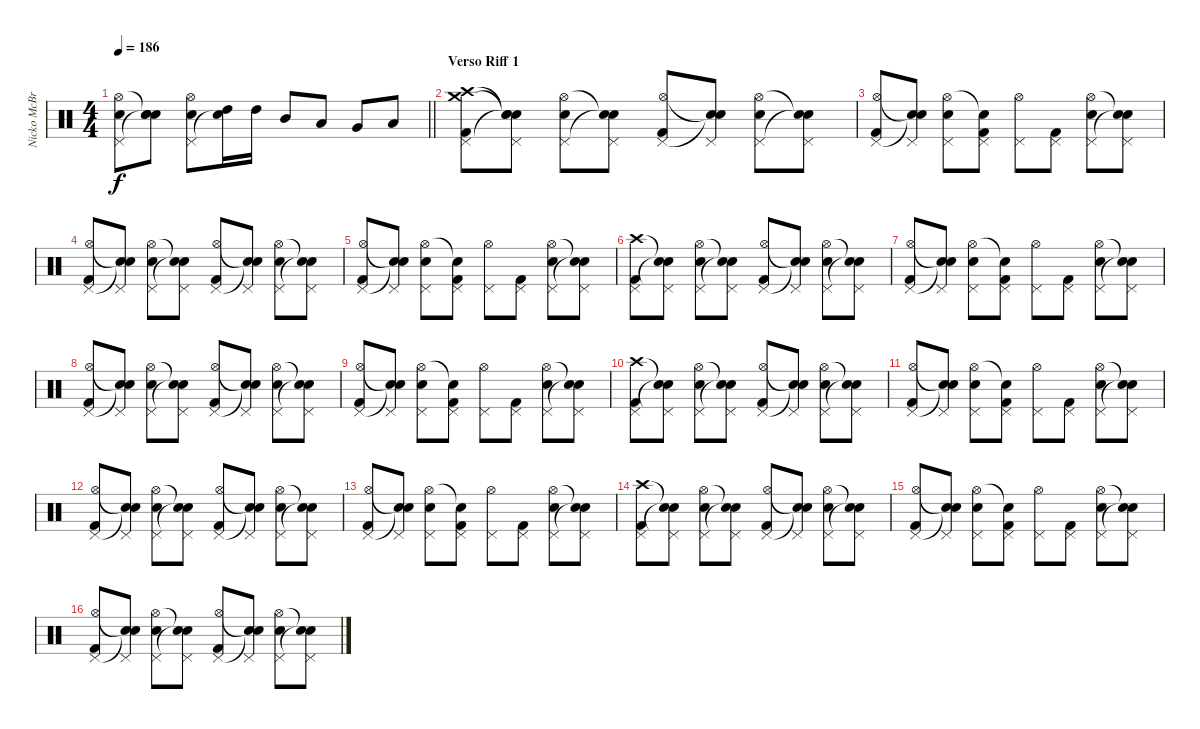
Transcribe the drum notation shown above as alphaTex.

\track ("Nicko McBrain" "Nicko McBr") {instrument percussion}
\staff {score}
\articulation defaults
\ts (4 4)
\tempo 186
\clef neutral
\barLineRight lightlight
\ks c
("Snare (hit) 2" "Pedal Hi-Hat (hit)" "Hi-Hat (open)").8{dy f} ("Snare (hit) 2" "Snare (hit)"{t} "Snare (hit)"{t}).8 ("Snare (hit) 2" "Pedal Hi-Hat (hit)" "Hi-Hat (open)").8 ("High Tom (hit)" "Snare (hit)"{t}).16 "High Tom (hit)".16 "Mid Tom (hit)".8 "Low Tom (hit)".8 "Very Low Tom (hit)".8 "Low Floor Tom (hit)".8 |
\section ("" "Verso Riff 1")
("Kick (hit) 2" "Pedal Hi-Hat (hit)" "Crash high (hit)" "Crash medium (hit)").8 ("Pedal Hi-Hat (hit)" "Snare (hit)"{t} "Snare (hit)"{t} "Snare (hit)"{t}).8 ("Snare (hit) 2" "Pedal Hi-Hat (hit)" "Hi-Hat (open)").8 ("Pedal Hi-Hat (hit)" "Snare (hit)"{t} "Snare (hit)"{t}).8 ("Kick (hit) 2" "Pedal Hi-Hat (hit)" "Hi-Hat (open)").8 ("Pedal Hi-Hat (hit)" "Snare (hit)"{t} "Snare (hit)"{t}).8 ("Snare (hit) 2" "Pedal Hi-Hat (hit)" "Hi-Hat (open)").8 ("Pedal Hi-Hat (hit)" "Snare (hit)"{t} "Snare (hit)"{t}).8 |
("Kick (hit) 2" "Pedal Hi-Hat (hit)" "Hi-Hat (open)").8 ("Pedal Hi-Hat (hit)" "Snare (hit)"{t} "Snare (hit)"{t}).8 ("Snare (hit) 2" "Pedal Hi-Hat (hit)" "Hi-Hat (open)").8 ("Kick (hit) 2" "Pedal Hi-Hat (hit)" "Snare (hit)"{t}).8 ("Pedal Hi-Hat (hit)" "Hi-Hat (open)").8 ("Kick (hit) 2" "Pedal Hi-Hat (hit)").8 ("Snare (hit) 2" "Pedal Hi-Hat (hit)" "Hi-Hat (open)").8 ("Pedal Hi-Hat (hit)" "Snare (hit)"{t} "Snare (hit)"{t}).8 |
("Kick (hit) 2" "Pedal Hi-Hat (hit)" "Hi-Hat (open)").8 ("Pedal Hi-Hat (hit)" "Snare (hit)"{t} "Snare (hit)"{t}).8 ("Snare (hit) 2" "Pedal Hi-Hat (hit)" "Hi-Hat (open)").8 ("Pedal Hi-Hat (hit)" "Snare (hit)"{t} "Snare (hit)"{t}).8 ("Kick (hit) 2" "Pedal Hi-Hat (hit)" "Hi-Hat (open)").8 ("Pedal Hi-Hat (hit)" "Snare (hit)"{t} "Snare (hit)"{t}).8 ("Snare (hit) 2" "Pedal Hi-Hat (hit)" "Hi-Hat (open)").8 ("Pedal Hi-Hat (hit)" "Snare (hit)"{t} "Snare (hit)"{t}).8 |
("Kick (hit) 2" "Pedal Hi-Hat (hit)" "Hi-Hat (open)").8 ("Pedal Hi-Hat (hit)" "Snare (hit)"{t} "Snare (hit)"{t}).8 ("Snare (hit) 2" "Pedal Hi-Hat (hit)" "Hi-Hat (open)").8 ("Kick (hit) 2" "Pedal Hi-Hat (hit)" "Snare (hit)"{t}).8 ("Pedal Hi-Hat (hit)" "Hi-Hat (open)").8 ("Kick (hit) 2" "Pedal Hi-Hat (hit)").8 ("Snare (hit) 2" "Pedal Hi-Hat (hit)" "Hi-Hat (open)").8 ("Pedal Hi-Hat (hit)" "Snare (hit)"{t} "Snare (hit)"{t}).8 |
("Kick (hit) 2" "Pedal Hi-Hat (hit)" "Crash high (hit)").8 ("Pedal Hi-Hat (hit)" "Snare (hit)"{t} "Snare (hit)"{t}).8 ("Snare (hit) 2" "Pedal Hi-Hat (hit)" "Hi-Hat (open)").8 ("Pedal Hi-Hat (hit)" "Snare (hit)"{t} "Snare (hit)"{t}).8 ("Kick (hit) 2" "Pedal Hi-Hat (hit)" "Hi-Hat (open)").8 ("Pedal Hi-Hat (hit)" "Snare (hit)"{t} "Snare (hit)"{t}).8 ("Snare (hit) 2" "Pedal Hi-Hat (hit)" "Hi-Hat (open)").8 ("Pedal Hi-Hat (hit)" "Snare (hit)"{t} "Snare (hit)"{t}).8 |
("Kick (hit) 2" "Pedal Hi-Hat (hit)" "Hi-Hat (open)").8 ("Pedal Hi-Hat (hit)" "Snare (hit)"{t} "Snare (hit)"{t}).8 ("Snare (hit) 2" "Pedal Hi-Hat (hit)" "Hi-Hat (open)").8 ("Kick (hit) 2" "Pedal Hi-Hat (hit)" "Snare (hit)"{t}).8 ("Pedal Hi-Hat (hit)" "Hi-Hat (open)").8 ("Kick (hit) 2" "Pedal Hi-Hat (hit)").8 ("Snare (hit) 2" "Pedal Hi-Hat (hit)" "Hi-Hat (open)").8 ("Pedal Hi-Hat (hit)" "Snare (hit)"{t} "Snare (hit)"{t}).8 |
("Kick (hit) 2" "Pedal Hi-Hat (hit)" "Hi-Hat (open)").8 ("Pedal Hi-Hat (hit)" "Snare (hit)"{t} "Snare (hit)"{t}).8 ("Snare (hit) 2" "Pedal Hi-Hat (hit)" "Hi-Hat (open)").8 ("Pedal Hi-Hat (hit)" "Snare (hit)"{t} "Snare (hit)"{t}).8 ("Kick (hit) 2" "Pedal Hi-Hat (hit)" "Hi-Hat (open)").8 ("Pedal Hi-Hat (hit)" "Snare (hit)"{t} "Snare (hit)"{t}).8 ("Snare (hit) 2" "Pedal Hi-Hat (hit)" "Hi-Hat (open)").8 ("Pedal Hi-Hat (hit)" "Snare (hit)"{t} "Snare (hit)"{t}).8 |
("Kick (hit) 2" "Pedal Hi-Hat (hit)" "Hi-Hat (open)").8 ("Pedal Hi-Hat (hit)" "Snare (hit)"{t} "Snare (hit)"{t}).8 ("Snare (hit) 2" "Pedal Hi-Hat (hit)" "Hi-Hat (open)").8 ("Kick (hit) 2" "Pedal Hi-Hat (hit)" "Snare (hit)"{t}).8 ("Pedal Hi-Hat (hit)" "Hi-Hat (open)").8 ("Kick (hit) 2" "Pedal Hi-Hat (hit)").8 ("Snare (hit) 2" "Pedal Hi-Hat (hit)" "Hi-Hat (open)").8 ("Pedal Hi-Hat (hit)" "Snare (hit)"{t} "Snare (hit)"{t}).8 |
("Kick (hit) 2" "Pedal Hi-Hat (hit)" "Crash high (hit)").8 ("Pedal Hi-Hat (hit)" "Snare (hit)"{t} "Snare (hit)"{t}).8 ("Snare (hit) 2" "Pedal Hi-Hat (hit)" "Hi-Hat (open)").8 ("Pedal Hi-Hat (hit)" "Snare (hit)"{t} "Snare (hit)"{t}).8 ("Kick (hit) 2" "Pedal Hi-Hat (hit)" "Hi-Hat (open)").8 ("Pedal Hi-Hat (hit)" "Snare (hit)"{t} "Snare (hit)"{t}).8 ("Snare (hit) 2" "Pedal Hi-Hat (hit)" "Hi-Hat (open)").8 ("Pedal Hi-Hat (hit)" "Snare (hit)"{t} "Snare (hit)"{t}).8 |
("Kick (hit) 2" "Pedal Hi-Hat (hit)" "Hi-Hat (open)").8 ("Pedal Hi-Hat (hit)" "Snare (hit)"{t} "Snare (hit)"{t}).8 ("Snare (hit) 2" "Pedal Hi-Hat (hit)" "Hi-Hat (open)").8 ("Kick (hit) 2" "Pedal Hi-Hat (hit)" "Snare (hit)"{t}).8 ("Pedal Hi-Hat (hit)" "Hi-Hat (open)").8 ("Kick (hit) 2" "Pedal Hi-Hat (hit)").8 ("Snare (hit) 2" "Pedal Hi-Hat (hit)" "Hi-Hat (open)").8 ("Pedal Hi-Hat (hit)" "Snare (hit)"{t} "Snare (hit)"{t}).8 |
("Kick (hit) 2" "Pedal Hi-Hat (hit)" "Hi-Hat (open)").8 ("Pedal Hi-Hat (hit)" "Snare (hit)"{t} "Snare (hit)"{t}).8 ("Snare (hit) 2" "Pedal Hi-Hat (hit)" "Hi-Hat (open)").8 ("Pedal Hi-Hat (hit)" "Snare (hit)"{t} "Snare (hit)"{t}).8 ("Kick (hit) 2" "Pedal Hi-Hat (hit)" "Hi-Hat (open)").8 ("Pedal Hi-Hat (hit)" "Snare (hit)"{t} "Snare (hit)"{t}).8 ("Snare (hit) 2" "Pedal Hi-Hat (hit)" "Hi-Hat (open)").8 ("Pedal Hi-Hat (hit)" "Snare (hit)"{t} "Snare (hit)"{t}).8 |
("Kick (hit) 2" "Pedal Hi-Hat (hit)" "Hi-Hat (open)").8 ("Pedal Hi-Hat (hit)" "Snare (hit)"{t} "Snare (hit)"{t}).8 ("Snare (hit) 2" "Pedal Hi-Hat (hit)" "Hi-Hat (open)").8 ("Kick (hit) 2" "Pedal Hi-Hat (hit)" "Snare (hit)"{t}).8 ("Pedal Hi-Hat (hit)" "Hi-Hat (open)").8 ("Kick (hit) 2" "Pedal Hi-Hat (hit)").8 ("Snare (hit) 2" "Pedal Hi-Hat (hit)" "Hi-Hat (open)").8 ("Pedal Hi-Hat (hit)" "Snare (hit)"{t} "Snare (hit)"{t}).8 |
("Kick (hit) 2" "Pedal Hi-Hat (hit)" "Crash high (hit)").8 ("Pedal Hi-Hat (hit)" "Snare (hit)"{t} "Snare (hit)"{t}).8 ("Snare (hit) 2" "Pedal Hi-Hat (hit)" "Hi-Hat (open)").8 ("Pedal Hi-Hat (hit)" "Snare (hit)"{t} "Snare (hit)"{t}).8 ("Kick (hit) 2" "Pedal Hi-Hat (hit)" "Hi-Hat (open)").8 ("Pedal Hi-Hat (hit)" "Snare (hit)"{t} "Snare (hit)"{t}).8 ("Snare (hit) 2" "Pedal Hi-Hat (hit)" "Hi-Hat (open)").8 ("Pedal Hi-Hat (hit)" "Snare (hit)"{t} "Snare (hit)"{t}).8 |
("Kick (hit) 2" "Pedal Hi-Hat (hit)" "Hi-Hat (open)").8 ("Pedal Hi-Hat (hit)" "Snare (hit)"{t} "Snare (hit)"{t}).8 ("Snare (hit) 2" "Pedal Hi-Hat (hit)" "Hi-Hat (open)").8 ("Kick (hit) 2" "Pedal Hi-Hat (hit)" "Snare (hit)"{t}).8 ("Pedal Hi-Hat (hit)" "Hi-Hat (open)").8 ("Kick (hit) 2" "Pedal Hi-Hat (hit)").8 ("Snare (hit) 2" "Pedal Hi-Hat (hit)" "Hi-Hat (open)").8 ("Pedal Hi-Hat (hit)" "Snare (hit)"{t} "Snare (hit)"{t}).8 |
("Kick (hit) 2" "Pedal Hi-Hat (hit)" "Hi-Hat (open)").8 ("Pedal Hi-Hat (hit)" "Snare (hit)"{t} "Snare (hit)"{t}).8 ("Snare (hit) 2" "Pedal Hi-Hat (hit)" "Hi-Hat (open)").8 ("Pedal Hi-Hat (hit)" "Snare (hit)"{t} "Snare (hit)"{t}).8 ("Kick (hit) 2" "Pedal Hi-Hat (hit)" "Hi-Hat (open)").8 ("Pedal Hi-Hat (hit)" "Snare (hit)"{t} "Snare (hit)"{t}).8 ("Snare (hit) 2" "Pedal Hi-Hat (hit)" "Hi-Hat (open)").8 ("Pedal Hi-Hat (hit)" "Snare (hit)"{t} "Snare (hit)"{t}).8
